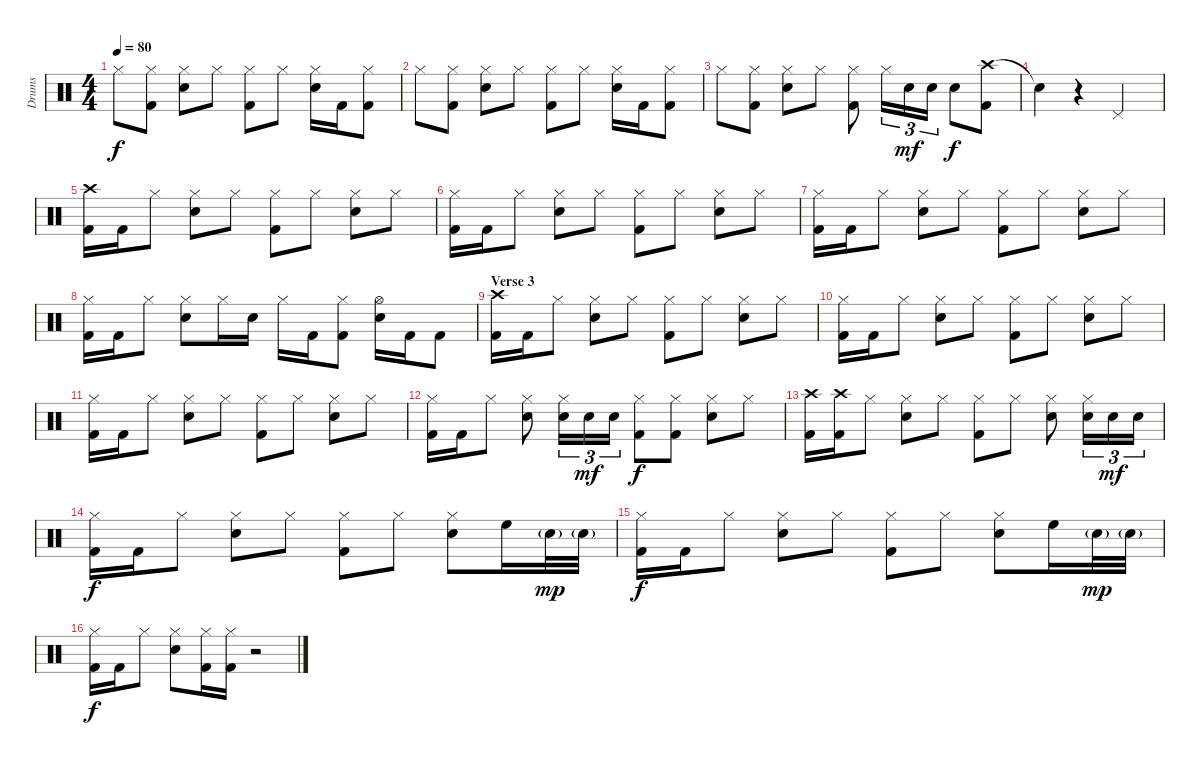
\track ("Drums" "Drums") {instrument percussion}
\staff {score}
\articulation defaults
\ts (4 4)
\tempo 80
\clef neutral
\ks c "Hi-Hat (closed)".8{dy f}
("Hi-Hat (closed)" "Kick (hit) 2").8 ("Hi-Hat (closed)" "Electric Snare (hit)").8 "Hi-Hat (closed)".8 ("Hi-Hat (closed)" "Kick (hit) 2").8 "Hi-Hat (closed)".8 ("Hi-Hat (closed)" "Electric Snare (hit)").16 "Kick (hit) 2".16 ("Hi-Hat (closed)" "Kick (hit) 2").8 |
"Hi-Hat (closed)".8 ("Hi-Hat (closed)" "Kick (hit) 2").8 ("Hi-Hat (closed)" "Electric Snare (hit)").8 "Hi-Hat (closed)".8 ("Hi-Hat (closed)" "Kick (hit) 2").8 "Hi-Hat (closed)".8 ("Hi-Hat (closed)" "Electric Snare (hit)").16 "Kick (hit) 2".16 ("Hi-Hat (closed)" "Kick (hit) 2").8 |
"Hi-Hat (closed)".8 ("Hi-Hat (closed)" "Kick (hit) 2").8 ("Hi-Hat (closed)" "Electric Snare (hit)").8 "Hi-Hat (closed)".8 ("Hi-Hat (closed)" "Kick (hit) 2").8 "Hi-Hat (closed)".16{tu (3 2)} "Electric Snare (hit)".16{tu (3 2) dy mf} "Electric Snare (hit)".16{tu (3 2)} "Electric Snare (hit)".8{dy f} ("Crash high (hit)" "Kick (hit) 2").8 |
"Snare (hit)"{t}.4 r.4 "Pedal Hi-Hat (hit)".2 |
("Crash high (hit)" "Kick (hit) 2").16 "Kick (hit) 2".16 "Hi-Hat (closed)".8 ("Hi-Hat (closed)" "Electric Snare (hit)").8 "Hi-Hat (closed)".8 ("Hi-Hat (closed)" "Kick (hit) 2").8 "Hi-Hat (closed)".8 ("Hi-Hat (closed)" "Electric Snare (hit)").8 "Hi-Hat (closed)".8 |
("Hi-Hat (closed)" "Kick (hit) 2").16 "Kick (hit) 2".16 "Hi-Hat (closed)".8 ("Hi-Hat (closed)" "Electric Snare (hit)").8 "Hi-Hat (closed)".8 ("Hi-Hat (closed)" "Kick (hit) 2").8 "Hi-Hat (closed)".8 ("Hi-Hat (closed)" "Electric Snare (hit)").8 "Hi-Hat (closed)".8 |
("Hi-Hat (closed)" "Kick (hit) 2").16 "Kick (hit) 2".16 "Hi-Hat (closed)".8 ("Hi-Hat (closed)" "Electric Snare (hit)").8 "Hi-Hat (closed)".8 ("Hi-Hat (closed)" "Kick (hit) 2").8 "Hi-Hat (closed)".8 ("Hi-Hat (closed)" "Electric Snare (hit)").8 "Hi-Hat (closed)".8 |
("Hi-Hat (closed)" "Kick (hit) 2").16 "Kick (hit) 2".16 "Hi-Hat (closed)".8 ("Hi-Hat (closed)" "Electric Snare (hit)").8 "Hi-Hat (closed)".16 "Electric Snare (hit)".16 "Hi-Hat (closed)".16 "Kick (hit) 2".16 ("Hi-Hat (closed)" "Kick (hit) 2").8 ("Hi-Hat (open)" "Electric Snare (hit)").16 "Kick (hit) 2".16 "Kick (hit) 2".8 |
\section ("" "Verse 3")
("Crash high (hit)" "Kick (hit) 2").16 "Kick (hit) 2".16 "Hi-Hat (closed)".8 ("Hi-Hat (closed)" "Electric Snare (hit)").8 "Hi-Hat (closed)".8 ("Hi-Hat (closed)" "Kick (hit) 2").8 "Hi-Hat (closed)".8 ("Hi-Hat (closed)" "Electric Snare (hit)").8 "Hi-Hat (closed)".8 |
("Hi-Hat (closed)" "Kick (hit) 2").16 "Kick (hit) 2".16 "Hi-Hat (closed)".8 ("Hi-Hat (closed)" "Electric Snare (hit)").8 "Hi-Hat (closed)".8 ("Hi-Hat (closed)" "Kick (hit) 2").8 "Hi-Hat (closed)".8 ("Hi-Hat (closed)" "Electric Snare (hit)").8 "Hi-Hat (closed)".8 |
("Hi-Hat (closed)" "Kick (hit) 2").16 "Kick (hit) 2".16 "Hi-Hat (closed)".8 ("Hi-Hat (closed)" "Electric Snare (hit)").8 "Hi-Hat (closed)".8 ("Hi-Hat (closed)" "Kick (hit) 2").8 "Hi-Hat (closed)".8 ("Hi-Hat (closed)" "Electric Snare (hit)").8 "Hi-Hat (closed)".8 |
("Hi-Hat (closed)" "Kick (hit) 2").16 "Kick (hit) 2".16 "Hi-Hat (closed)".8 ("Hi-Hat (closed)" "Electric Snare (hit)").8 ("Hi-Hat (closed)" "Electric Snare (hit)").16{tu (3 2)} "Electric Snare (hit)".16{tu (3 2) dy mf} "Electric Snare (hit)".16{tu (3 2)} ("Hi-Hat (closed)" "Kick (hit) 2").8{dy f} ("Hi-Hat (closed)" "Kick (hit) 2").8 ("Hi-Hat (closed)" "Electric Snare (hit)").8 "Hi-Hat (closed)".8 |
("Crash high (hit)" "Kick (hit) 2").16 ("Crash high (hit)" "Kick (hit) 2").16 "Hi-Hat (closed)".8 ("Hi-Hat (closed)" "Electric Snare (hit)").8 "Hi-Hat (closed)".8 ("Hi-Hat (closed)" "Kick (hit) 2").8 "Hi-Hat (closed)".8 ("Hi-Hat (closed)" "Electric Snare (hit)").8 ("Hi-Hat (closed)" "Electric Snare (hit)").16{tu (3 2)} "Electric Snare (hit)".16{tu (3 2) dy mf} "Electric Snare (hit)".16{tu (3 2)} |
("Hi-Hat (closed)" "Kick (hit) 2").16{dy f} "Kick (hit) 2".16 "Hi-Hat (closed)".8 ("Hi-Hat (closed)" "Electric Snare (hit)").8 "Hi-Hat (closed)".8 ("Hi-Hat (closed)" "Kick (hit) 2").8 "Hi-Hat (closed)".8 ("Hi-Hat (closed)" "Electric Snare (hit)").8 "High Floor Tom (hit)".16 "Electric Snare (hit)"{g}.32{dy mp} "Electric Snare (hit)"{g}.32 |
("Hi-Hat (closed)" "Kick (hit) 2").16{dy f} "Kick (hit) 2".16 "Hi-Hat (closed)".8 ("Hi-Hat (closed)" "Electric Snare (hit)").8 "Hi-Hat (closed)".8 ("Hi-Hat (closed)" "Kick (hit) 2").8 "Hi-Hat (closed)".8 ("Hi-Hat (closed)" "Electric Snare (hit)").8 "High Floor Tom (hit)".16 "Electric Snare (hit)"{g}.32{dy mp} "Electric Snare (hit)"{g}.32 |
("Hi-Hat (closed)" "Kick (hit) 2").16{dy f} "Kick (hit) 2".16 "Hi-Hat (closed)".8 ("Hi-Hat (closed)" "Electric Snare (hit)").8 ("Hi-Hat (closed)" "Kick (hit) 2").16 ("Hi-Hat (closed)" "Kick (hit) 2").16 r.2
